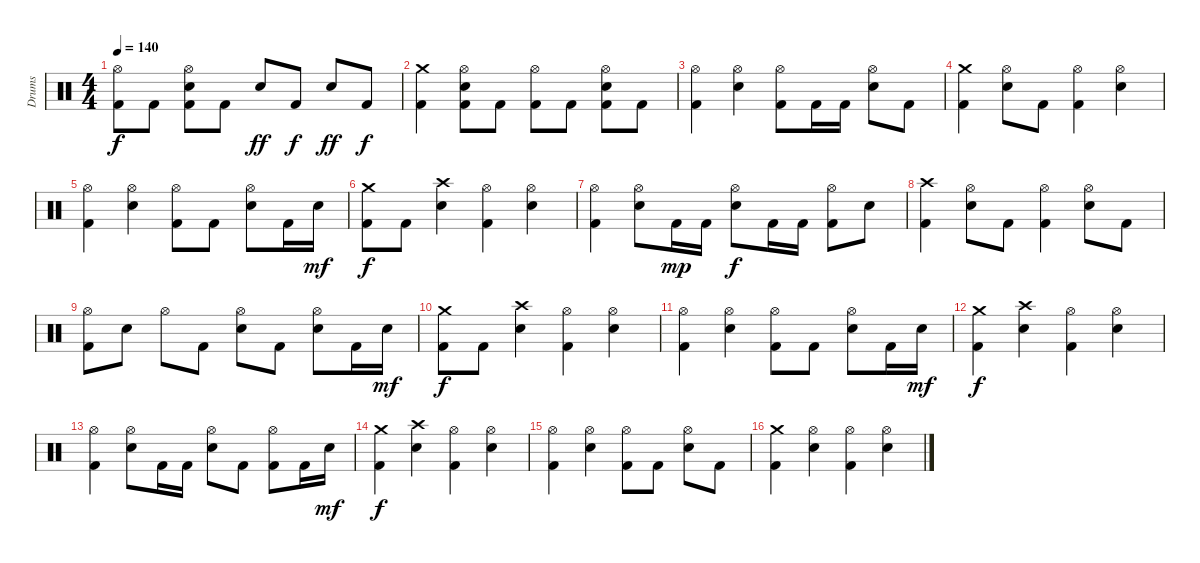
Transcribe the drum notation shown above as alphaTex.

\track ("Drums" "Drums") {instrument percussion}
\staff {score}
\articulation defaults
\ts (4 4)
\tempo 140
\clef neutral
\ks c
("Hi-Hat (open)" "Kick (hit) 2").8{dy f} "Kick (hit) 2".8 ("Hi-Hat (open)" "Electric Snare (hit)" "Kick (hit) 2").8 "Kick (hit) 2".8 "Electric Snare (hit)".8{dy ff} "Kick (hit) 2".8{dy f} "Electric Snare (hit)".8{dy ff} "Kick (hit) 2".8{dy f} |
("Crash medium (hit)" "Kick (hit) 2").4 ("Hi-Hat (open)" "Electric Snare (hit)" "Kick (hit) 2").8 "Kick (hit) 2".8 ("Hi-Hat (open)" "Kick (hit) 2").8 "Kick (hit) 2".8 ("Hi-Hat (open)" "Electric Snare (hit)" "Kick (hit) 2").8 "Kick (hit) 2".8 |
("Hi-Hat (open)" "Kick (hit) 2").4 ("Hi-Hat (open)" "Electric Snare (hit)").4 ("Hi-Hat (open)" "Kick (hit) 2").8 "Kick (hit) 2".16 "Kick (hit) 2".16 ("Hi-Hat (open)" "Electric Snare (hit)").8 "Kick (hit) 2".8 |
("Crash medium (hit)" "Kick (hit) 2").4 ("Hi-Hat (open)" "Electric Snare (hit)").8 "Kick (hit) 2".8 ("Hi-Hat (open)" "Kick (hit) 2").4 ("Hi-Hat (open)" "Electric Snare (hit)").4 |
("Hi-Hat (open)" "Kick (hit) 2").4 ("Hi-Hat (open)" "Electric Snare (hit)").4 ("Hi-Hat (open)" "Kick (hit) 2").8 "Kick (hit) 2".8 ("Hi-Hat (open)" "Electric Snare (hit)").8 "Kick (hit) 2".16 "Electric Snare (hit)".16{dy mf} |
("Crash medium (hit)" "Kick (hit) 2").8{dy f} "Kick (hit) 2".8 ("Crash high (hit)" "Electric Snare (hit)").4 ("Hi-Hat (open)" "Kick (hit) 2").4 ("Hi-Hat (open)" "Electric Snare (hit)").4 |
("Hi-Hat (open)" "Kick (hit) 2").4 ("Hi-Hat (open)" "Electric Snare (hit)").8 "Kick (hit) 2".16{dy mp} "Kick (hit) 2".16 ("Hi-Hat (open)" "Electric Snare (hit)").8{dy f} "Kick (hit) 2".16 "Kick (hit) 2".16 ("Hi-Hat (open)" "Kick (hit) 2").8 "Electric Snare (hit)".8 |
("Crash high (hit)" "Kick (hit) 2").4 ("Hi-Hat (open)" "Electric Snare (hit)").8 "Kick (hit) 2".8 ("Hi-Hat (open)" "Kick (hit) 2").4 ("Hi-Hat (open)" "Electric Snare (hit)").8 "Kick (hit) 2".8 |
("Hi-Hat (open)" "Kick (hit) 2").8 "Electric Snare (hit)".8 "Hi-Hat (open)".8 "Kick (hit) 2".8 ("Hi-Hat (open)" "Electric Snare (hit)").8 "Kick (hit) 2".8 ("Hi-Hat (open)" "Electric Snare (hit)").8 "Kick (hit) 2".16 "Electric Snare (hit)".16{dy mf} |
("Crash medium (hit)" "Kick (hit) 2").8{dy f} "Kick (hit) 2".8 ("Crash high (hit)" "Electric Snare (hit)").4 ("Hi-Hat (open)" "Kick (hit) 2").4 ("Hi-Hat (open)" "Electric Snare (hit)").4 |
("Hi-Hat (open)" "Kick (hit) 2").4 ("Hi-Hat (open)" "Electric Snare (hit)").4 ("Hi-Hat (open)" "Kick (hit) 2").8 "Kick (hit) 2".8 ("Hi-Hat (open)" "Electric Snare (hit)").8 "Kick (hit) 2".16 "Electric Snare (hit)".16{dy mf} |
("Crash medium (hit)" "Kick (hit) 2").4{dy f} ("Crash high (hit)" "Electric Snare (hit)").4 ("Hi-Hat (open)" "Kick (hit) 2").4 ("Hi-Hat (open)" "Electric Snare (hit)").4 |
("Hi-Hat (open)" "Kick (hit) 2").4 ("Hi-Hat (open)" "Electric Snare (hit)").8 "Kick (hit) 2".16 "Kick (hit) 2".16 ("Hi-Hat (open)" "Electric Snare (hit)").8 "Kick (hit) 2".8 ("Hi-Hat (open)" "Kick (hit) 2").8 "Kick (hit) 2".16 "Electric Snare (hit)".16{dy mf} |
("Crash medium (hit)" "Kick (hit) 2").4{dy f} ("Crash high (hit)" "Electric Snare (hit)").4 ("Hi-Hat (open)" "Kick (hit) 2").4 ("Hi-Hat (open)" "Electric Snare (hit)").4 |
("Hi-Hat (open)" "Kick (hit) 2").4 ("Hi-Hat (open)" "Electric Snare (hit)").4 ("Hi-Hat (open)" "Kick (hit) 2").8 "Kick (hit) 2".8 ("Hi-Hat (open)" "Electric Snare (hit)").8 "Kick (hit) 2".8 |
("Crash medium (hit)" "Kick (hit) 2").4 ("Hi-Hat (open)" "Electric Snare (hit)").4 ("Hi-Hat (open)" "Kick (hit) 2").4 ("Hi-Hat (open)" "Electric Snare (hit)").4
